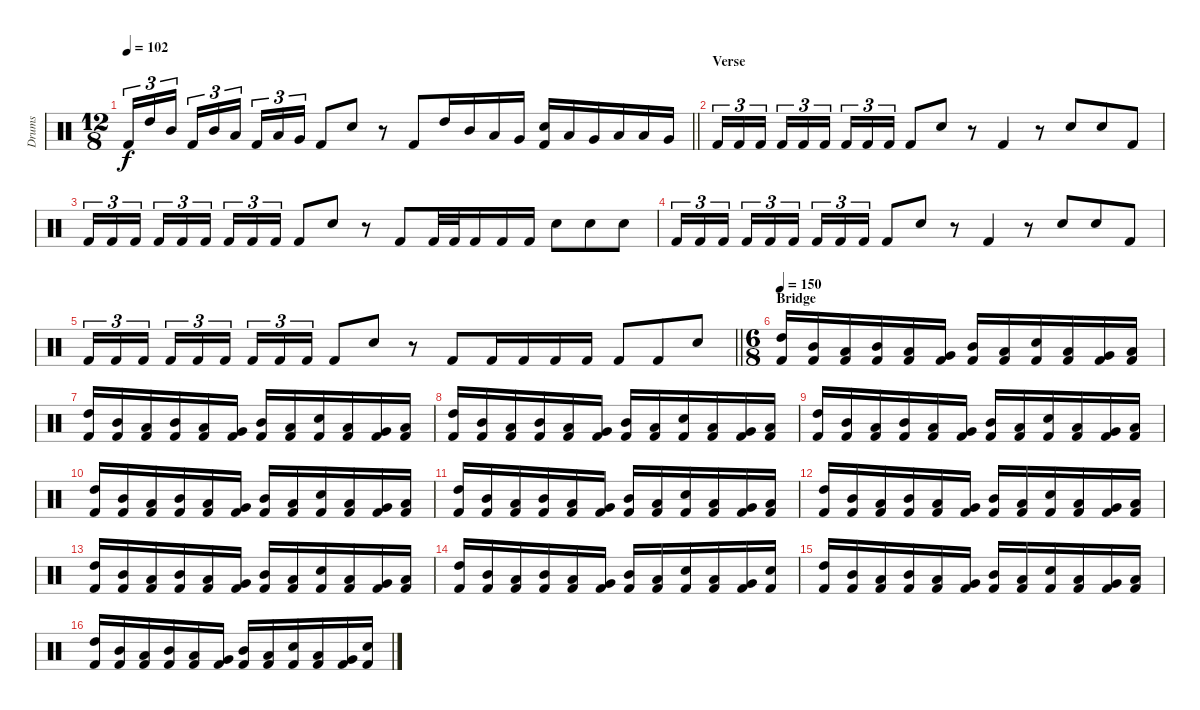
\track ("Drums" "Drums") {instrument percussion}
\staff {score}
\articulation defaults
\ts (12 8)
\tempo 102
\clef neutral
\barLineRight lightlight
\ks c "Kick (hit) 2".16{tu (3 2) dy f} "High Tom (hit)".16{tu (3 2)} "Mid Tom (hit)".16{tu (3 2) beam splitsecondary} "Kick (hit) 2".16{tu (3 2)} "Mid Tom (hit)".16{tu (3 2)} "Low Tom (hit)".16{tu (3 2) beam splitsecondary} "Kick (hit) 2".16{tu (3 2)} "Low Tom (hit)".16{tu (3 2)} "Very Low Tom (hit)".16{tu (3 2)} "Kick (hit) 2".8 "Electric Snare (hit)".8
r.8 "Kick (hit) 2".8 "High Tom (hit)".16 "Mid Tom (hit)".16 "Low Tom (hit)".16 "Very Low Tom (hit)".16 ("Electric Snare (hit)" "Kick (hit) 2").16 "Low Tom (hit)".16 "Very Low Tom (hit)".16 "Low Floor Tom (hit)".16 "Low Tom (hit)".16 "Very Low Tom (hit)".16 |
\section ("" "Verse")
"Kick (hit) 2".16{tu (3 2)} "Kick (hit) 2".16{tu (3 2)} "Kick (hit) 2".16{tu (3 2) beam splitsecondary} "Kick (hit) 2".16{tu (3 2)} "Kick (hit) 2".16{tu (3 2)} "Kick (hit) 2".16{tu (3 2) beam splitsecondary} "Kick (hit) 2".16{tu (3 2)} "Kick (hit) 2".16{tu (3 2)} "Kick (hit) 2".16{tu (3 2)} "Kick (hit) 2".8 "Electric Snare (hit)".8 r.8 "Kick (hit) 2".4 r.8 "Electric Snare (hit)".8 "Electric Snare (hit)".8 "Kick (hit) 2".8 |
"Kick (hit) 2".16{tu (3 2)} "Kick (hit) 2".16{tu (3 2)} "Kick (hit) 2".16{tu (3 2) beam splitsecondary} "Kick (hit) 2".16{tu (3 2)} "Kick (hit) 2".16{tu (3 2)} "Kick (hit) 2".16{tu (3 2) beam splitsecondary} "Kick (hit) 2".16{tu (3 2)} "Kick (hit) 2".16{tu (3 2)} "Kick (hit) 2".16{tu (3 2)} "Kick (hit) 2".8 "Electric Snare (hit)".8 r.8 "Kick (hit) 2".8 "Kick (hit) 2".32 "Kick (hit) 2".32 "Kick (hit) 2".16 "Kick (hit) 2".16 "Kick (hit) 2".16 "Electric Snare (hit)".8 "Electric Snare (hit)".8 "Electric Snare (hit)".8 |
"Kick (hit) 2".16{tu (3 2)} "Kick (hit) 2".16{tu (3 2)} "Kick (hit) 2".16{tu (3 2) beam splitsecondary} "Kick (hit) 2".16{tu (3 2)} "Kick (hit) 2".16{tu (3 2)} "Kick (hit) 2".16{tu (3 2) beam splitsecondary} "Kick (hit) 2".16{tu (3 2)} "Kick (hit) 2".16{tu (3 2)} "Kick (hit) 2".16{tu (3 2)} "Kick (hit) 2".8 "Electric Snare (hit)".8 r.8 "Kick (hit) 2".4 r.8 "Electric Snare (hit)".8 "Electric Snare (hit)".8 "Kick (hit) 2".8 |
\barLineRight lightlight "Kick (hit) 2".16{tu (3 2)} "Kick (hit) 2".16{tu (3 2)} "Kick (hit) 2".16{tu (3 2) beam splitsecondary} "Kick (hit) 2".16{tu (3 2)} "Kick (hit) 2".16{tu (3 2)} "Kick (hit) 2".16{tu (3 2) beam splitsecondary} "Kick (hit) 2".16{tu (3 2)} "Kick (hit) 2".16{tu (3 2)} "Kick (hit) 2".16{tu (3 2)} "Kick (hit) 2".8 "Electric Snare (hit)".8
r.8 "Kick (hit) 2".8 "Kick (hit) 2".16 "Kick (hit) 2".16 "Kick (hit) 2".16 "Kick (hit) 2".16 "Kick (hit) 2".8 "Kick (hit) 2".8 "Electric Snare (hit)".8 |
\ts (6 8)
\section ("" "Bridge")
\tempo 150
("High Tom (hit)" "Kick (hit) 2").16 ("Mid Tom (hit)" "Kick (hit) 2").16 ("Low Tom (hit)" "Kick (hit) 2").16 ("Mid Tom (hit)" "Kick (hit) 2").16 ("Low Tom (hit)" "Kick (hit) 2").16 ("Very Low Tom (hit)" "Kick (hit) 2").16 ("Mid Tom (hit)" "Kick (hit) 2").16 ("Low Tom (hit)" "Kick (hit) 2").16 ("Electric Snare (hit)" "Kick (hit) 2").16 ("Low Tom (hit)" "Kick (hit) 2").16 ("Very Low Tom (hit)" "Kick (hit) 2").16 ("Low Floor Tom (hit)" "Kick (hit) 2").16 |
("High Tom (hit)" "Kick (hit) 2").16 ("Mid Tom (hit)" "Kick (hit) 2").16 ("Low Tom (hit)" "Kick (hit) 2").16 ("Mid Tom (hit)" "Kick (hit) 2").16 ("Low Tom (hit)" "Kick (hit) 2").16 ("Very Low Tom (hit)" "Kick (hit) 2").16 ("Mid Tom (hit)" "Kick (hit) 2").16 ("Low Tom (hit)" "Kick (hit) 2").16 ("Electric Snare (hit)" "Kick (hit) 2").16 ("Low Tom (hit)" "Kick (hit) 2").16 ("Very Low Tom (hit)" "Kick (hit) 2").16 ("Low Floor Tom (hit)" "Kick (hit) 2").16 |
("High Tom (hit)" "Kick (hit) 2").16 ("Mid Tom (hit)" "Kick (hit) 2").16 ("Low Tom (hit)" "Kick (hit) 2").16 ("Mid Tom (hit)" "Kick (hit) 2").16 ("Low Tom (hit)" "Kick (hit) 2").16 ("Very Low Tom (hit)" "Kick (hit) 2").16 ("Mid Tom (hit)" "Kick (hit) 2").16 ("Low Tom (hit)" "Kick (hit) 2").16 ("Electric Snare (hit)" "Kick (hit) 2").16 ("Low Tom (hit)" "Kick (hit) 2").16 ("Very Low Tom (hit)" "Kick (hit) 2").16 ("Low Floor Tom (hit)" "Kick (hit) 2").16 |
("High Tom (hit)" "Kick (hit) 2").16 ("Mid Tom (hit)" "Kick (hit) 2").16 ("Low Tom (hit)" "Kick (hit) 2").16 ("Mid Tom (hit)" "Kick (hit) 2").16 ("Low Tom (hit)" "Kick (hit) 2").16 ("Very Low Tom (hit)" "Kick (hit) 2").16 ("Mid Tom (hit)" "Kick (hit) 2").16 ("Low Tom (hit)" "Kick (hit) 2").16 ("Electric Snare (hit)" "Kick (hit) 2").16 ("Low Tom (hit)" "Kick (hit) 2").16 ("Very Low Tom (hit)" "Kick (hit) 2").16 ("Low Floor Tom (hit)" "Kick (hit) 2").16 |
("High Tom (hit)" "Kick (hit) 2").16 ("Mid Tom (hit)" "Kick (hit) 2").16 ("Low Tom (hit)" "Kick (hit) 2").16 ("Mid Tom (hit)" "Kick (hit) 2").16 ("Low Tom (hit)" "Kick (hit) 2").16 ("Very Low Tom (hit)" "Kick (hit) 2").16 ("Mid Tom (hit)" "Kick (hit) 2").16 ("Low Tom (hit)" "Kick (hit) 2").16 ("Electric Snare (hit)" "Kick (hit) 2").16 ("Low Tom (hit)" "Kick (hit) 2").16 ("Very Low Tom (hit)" "Kick (hit) 2").16 ("Low Floor Tom (hit)" "Kick (hit) 2").16 |
("High Tom (hit)" "Kick (hit) 2").16 ("Mid Tom (hit)" "Kick (hit) 2").16 ("Low Tom (hit)" "Kick (hit) 2").16 ("Mid Tom (hit)" "Kick (hit) 2").16 ("Low Tom (hit)" "Kick (hit) 2").16 ("Very Low Tom (hit)" "Kick (hit) 2").16 ("Mid Tom (hit)" "Kick (hit) 2").16 ("Low Tom (hit)" "Kick (hit) 2").16 ("Electric Snare (hit)" "Kick (hit) 2").16 ("Low Tom (hit)" "Kick (hit) 2").16 ("Very Low Tom (hit)" "Kick (hit) 2").16 ("Low Floor Tom (hit)" "Kick (hit) 2").16 |
("High Tom (hit)" "Kick (hit) 2").16 ("Mid Tom (hit)" "Kick (hit) 2").16 ("Low Tom (hit)" "Kick (hit) 2").16 ("Mid Tom (hit)" "Kick (hit) 2").16 ("Low Tom (hit)" "Kick (hit) 2").16 ("Very Low Tom (hit)" "Kick (hit) 2").16 ("Mid Tom (hit)" "Kick (hit) 2").16 ("Low Tom (hit)" "Kick (hit) 2").16 ("Electric Snare (hit)" "Kick (hit) 2").16 ("Low Tom (hit)" "Kick (hit) 2").16 ("Very Low Tom (hit)" "Kick (hit) 2").16 ("Low Floor Tom (hit)" "Kick (hit) 2").16 |
("High Tom (hit)" "Kick (hit) 2").16 ("Mid Tom (hit)" "Kick (hit) 2").16 ("Low Tom (hit)" "Kick (hit) 2").16 ("Mid Tom (hit)" "Kick (hit) 2").16 ("Low Tom (hit)" "Kick (hit) 2").16 ("Very Low Tom (hit)" "Kick (hit) 2").16 ("Mid Tom (hit)" "Kick (hit) 2").16 ("Low Tom (hit)" "Kick (hit) 2").16 ("Electric Snare (hit)" "Kick (hit) 2").16 ("Low Tom (hit)" "Kick (hit) 2").16 ("Very Low Tom (hit)" "Kick (hit) 2").16 ("Low Floor Tom (hit)" "Kick (hit) 2").16 |
("High Tom (hit)" "Kick (hit) 2").16 ("Mid Tom (hit)" "Kick (hit) 2").16 ("Low Tom (hit)" "Kick (hit) 2").16 ("Mid Tom (hit)" "Kick (hit) 2").16 ("Low Tom (hit)" "Kick (hit) 2").16 ("Very Low Tom (hit)" "Kick (hit) 2").16 ("Mid Tom (hit)" "Kick (hit) 2").16 ("Low Tom (hit)" "Kick (hit) 2").16 ("Electric Snare (hit)" "Kick (hit) 2").16 ("Low Tom (hit)" "Kick (hit) 2").16 ("Very Low Tom (hit)" "Kick (hit) 2").16 ("Electric Snare (hit)" "Kick (hit) 2").16 |
("High Tom (hit)" "Kick (hit) 2").16 ("Mid Tom (hit)" "Kick (hit) 2").16 ("Low Tom (hit)" "Kick (hit) 2").16 ("Mid Tom (hit)" "Kick (hit) 2").16 ("Low Tom (hit)" "Kick (hit) 2").16 ("Very Low Tom (hit)" "Kick (hit) 2").16 ("Mid Tom (hit)" "Kick (hit) 2").16 ("Low Tom (hit)" "Kick (hit) 2").16 ("Electric Snare (hit)" "Kick (hit) 2").16 ("Low Tom (hit)" "Kick (hit) 2").16 ("Very Low Tom (hit)" "Kick (hit) 2").16 ("Low Floor Tom (hit)" "Kick (hit) 2").16 |
("High Tom (hit)" "Kick (hit) 2").16 ("Mid Tom (hit)" "Kick (hit) 2").16 ("Low Tom (hit)" "Kick (hit) 2").16 ("Mid Tom (hit)" "Kick (hit) 2").16 ("Low Tom (hit)" "Kick (hit) 2").16 ("Very Low Tom (hit)" "Kick (hit) 2").16 ("Mid Tom (hit)" "Kick (hit) 2").16 ("Low Tom (hit)" "Kick (hit) 2").16 ("Electric Snare (hit)" "Kick (hit) 2").16 ("Low Tom (hit)" "Kick (hit) 2").16 ("Very Low Tom (hit)" "Kick (hit) 2").16 ("Electric Snare (hit)" "Kick (hit) 2").16
